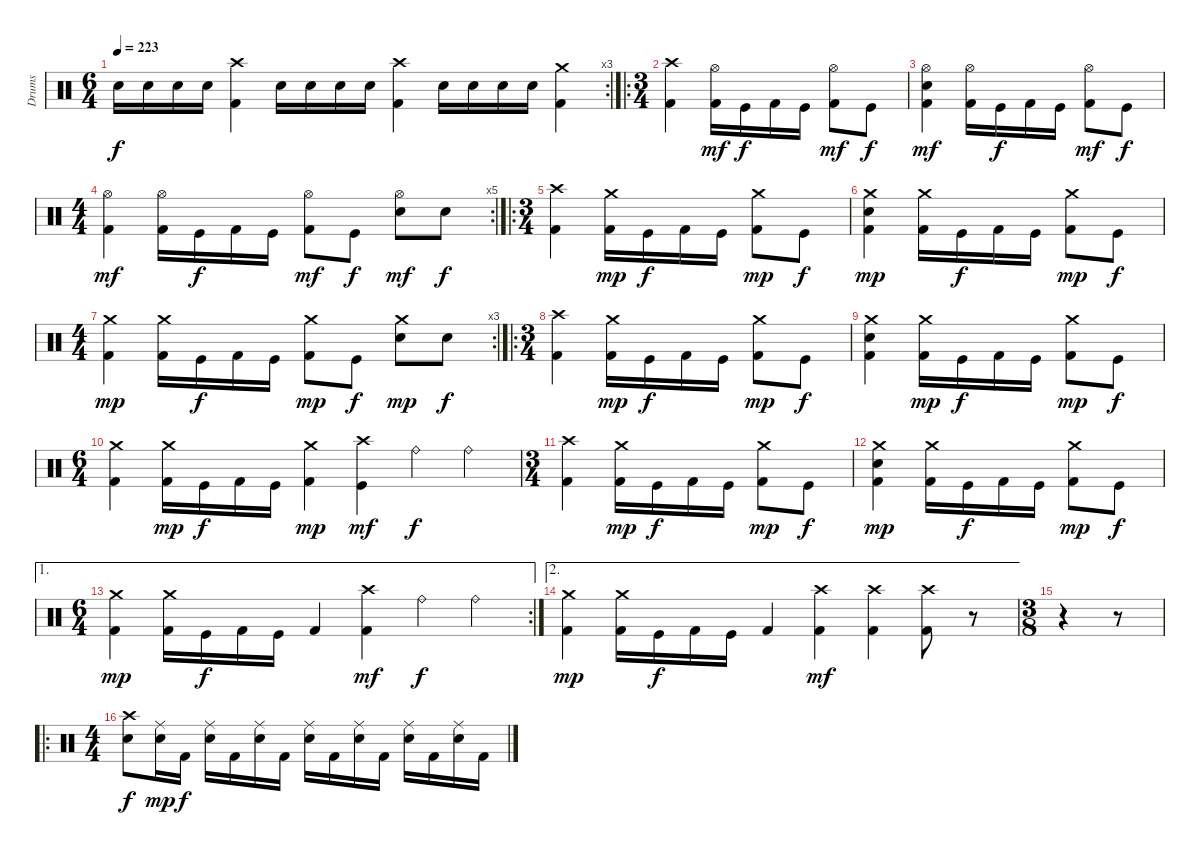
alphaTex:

\track ("Drums" "Drums") {instrument percussion}
\staff {score}
\articulation defaults
\rc 3
\ts (6 4)
\tempo 223
\clef neutral
\ks c "Snare (hit) 2".16{dy f} "Snare (hit) 2".16 "Snare (hit) 2".16 "Snare (hit) 2".16
("Crash high (hit)" "Kick (hit) 2").4 "Snare (hit) 2".16 "Snare (hit) 2".16 "Snare (hit) 2".16 "Snare (hit) 2".16 ("Crash high (hit)" "Kick (hit) 2").4 "Snare (hit) 2".16 "Snare (hit) 2".16 "Snare (hit) 2".16 "Snare (hit) 2".16 ("Crash medium (hit)" "Kick (hit) 2").4 |
\ro
\ts (3 4)
("Crash high (hit)" "Kick (hit) 2").4 ("Hi-Hat (open)" "Kick (hit) 2").16{dy mf} "Kick (hit)".16{dy f} "Kick (hit) 2".16 "Kick (hit)".16 ("Hi-Hat (open)" "Kick (hit) 2").8{dy mf} "Kick (hit)".8{dy f} |
("Hi-Hat (open)" "Snare (hit) 2" "Kick (hit) 2").4{dy mf} ("Hi-Hat (open)" "Kick (hit) 2").16 "Kick (hit)".16{dy f} "Kick (hit) 2".16 "Kick (hit)".16 ("Hi-Hat (open)" "Kick (hit) 2").8{dy mf} "Kick (hit)".8{dy f} |
\rc 5
\ts (4 4)
("Hi-Hat (open)" "Kick (hit) 2").4{dy mf} ("Hi-Hat (open)" "Kick (hit) 2").16 "Kick (hit)".16{dy f} "Kick (hit) 2".16 "Kick (hit)".16 ("Hi-Hat (open)" "Kick (hit) 2").8{dy mf} "Kick (hit)".8{dy f} ("Hi-Hat (open)" "Snare (hit) 2").8{dy mf} "Snare (hit) 2".8{dy f} |
\ro
\ts (3 4)
("Crash high (hit)" "Kick (hit) 2").4 ("Crash medium (hit)" "Kick (hit) 2").16{dy mp} "Kick (hit)".16{dy f} "Kick (hit) 2".16 "Kick (hit)".16 ("Crash medium (hit)" "Kick (hit) 2").8{dy mp} "Kick (hit)".8{dy f} |
("Crash medium (hit)" "Snare (hit) 2" "Kick (hit) 2").4{dy mp} ("Crash medium (hit)" "Kick (hit) 2").16 "Kick (hit)".16{dy f} "Kick (hit) 2".16 "Kick (hit)".16 ("Crash medium (hit)" "Kick (hit) 2").8{dy mp} "Kick (hit)".8{dy f} |
\rc 3
\ts (4 4)
("Crash medium (hit)" "Kick (hit) 2").4{dy mp} ("Crash medium (hit)" "Kick (hit) 2").16 "Kick (hit)".16{dy f} "Kick (hit) 2".16 "Kick (hit)".16 ("Crash medium (hit)" "Kick (hit) 2").8{dy mp} "Kick (hit)".8{dy f} ("Crash medium (hit)" "Snare (hit) 2").8{dy mp} "Snare (hit) 2".8{dy f} |
\ro
\ts (3 4)
("Crash high (hit)" "Kick (hit) 2").4 ("Crash medium (hit)" "Kick (hit) 2").16{dy mp} "Kick (hit)".16{dy f} "Kick (hit) 2".16 "Kick (hit)".16 ("Crash medium (hit)" "Kick (hit) 2").8{dy mp} "Kick (hit)".8{dy f} |
("Crash medium (hit)" "Snare (hit) 2" "Kick (hit) 2").4 ("Crash medium (hit)" "Kick (hit) 2").16{dy mp} "Kick (hit)".16{dy f} "Kick (hit) 2".16 "Kick (hit)".16 ("Crash medium (hit)" "Kick (hit) 2").8{dy mp} "Kick (hit)".8{dy f} |
\ts (6 4)
("Crash medium (hit)" "Kick (hit) 2").4 ("Crash medium (hit)" "Kick (hit) 2").16{dy mp} "Kick (hit)".16{dy f} "Kick (hit) 2".16 "Kick (hit)".16 ("Crash medium (hit)" "Kick (hit) 2").4{dy mp} ("Crash high (hit)" "Kick (hit)").4{dy mf} "Ride (bell)".4{dy f} "Ride (bell)".4 |
\ts (3 4)
("Crash high (hit)" "Kick (hit) 2").4 ("Crash medium (hit)" "Kick (hit) 2").16{dy mp} "Kick (hit)".16{dy f} "Kick (hit) 2".16 "Kick (hit)".16 ("Crash medium (hit)" "Kick (hit) 2").8{dy mp} "Kick (hit)".8{dy f} |
("Crash medium (hit)" "Snare (hit) 2" "Kick (hit) 2").4{dy mp} ("Crash medium (hit)" "Kick (hit) 2").16 "Kick (hit)".16{dy f} "Kick (hit) 2".16 "Kick (hit)".16 ("Crash medium (hit)" "Kick (hit) 2").8{dy mp} "Kick (hit)".8{dy f} |
\ae 1
\rc 2
\ts (6 4)
("Crash medium (hit)" "Kick (hit) 2").4{dy mp} ("Crash medium (hit)" "Kick (hit) 2").16 "Kick (hit)".16{dy f} "Kick (hit) 2".16 "Kick (hit)".16 "Kick (hit) 2".4 ("Crash high (hit)" "Kick (hit) 2").4{dy mf} "Ride (bell)".4{dy f} "Ride (bell)".4 |
\ae 2
("Crash medium (hit)" "Kick (hit) 2").4{dy mp} ("Crash medium (hit)" "Kick (hit) 2").16 "Kick (hit)".16{dy f} "Kick (hit) 2".16 "Kick (hit)".16 "Kick (hit) 2".4 ("Crash high (hit)" "Kick (hit) 2").4{dy mf} ("Crash high (hit)" "Kick (hit) 2").4 ("Crash high (hit)" "Kick (hit) 2").8 r.8{volume 0} |
\ts (3 8)
r.4 r.8{volume 13} |
\ro
\ts (4 4)
("Crash high (hit)" "Snare (hit) 2").8{dy f} ("Ride (middle)" "Snare (hit) 2").16{dy mp} "Kick (hit) 2".16{dy f} ("Ride (middle)" "Snare (hit) 2").16 "Kick (hit) 2".16 ("Ride (middle)" "Snare (hit) 2").16 "Kick (hit) 2".16 ("Ride (middle)" "Snare (hit) 2").16 "Kick (hit) 2".16 ("Ride (middle)" "Snare (hit) 2").16 "Kick (hit) 2".16 ("Ride (middle)" "Snare (hit) 2").16 "Kick (hit) 2".16 ("Ride (middle)" "Snare (hit) 2").16 "Kick (hit) 2".16
